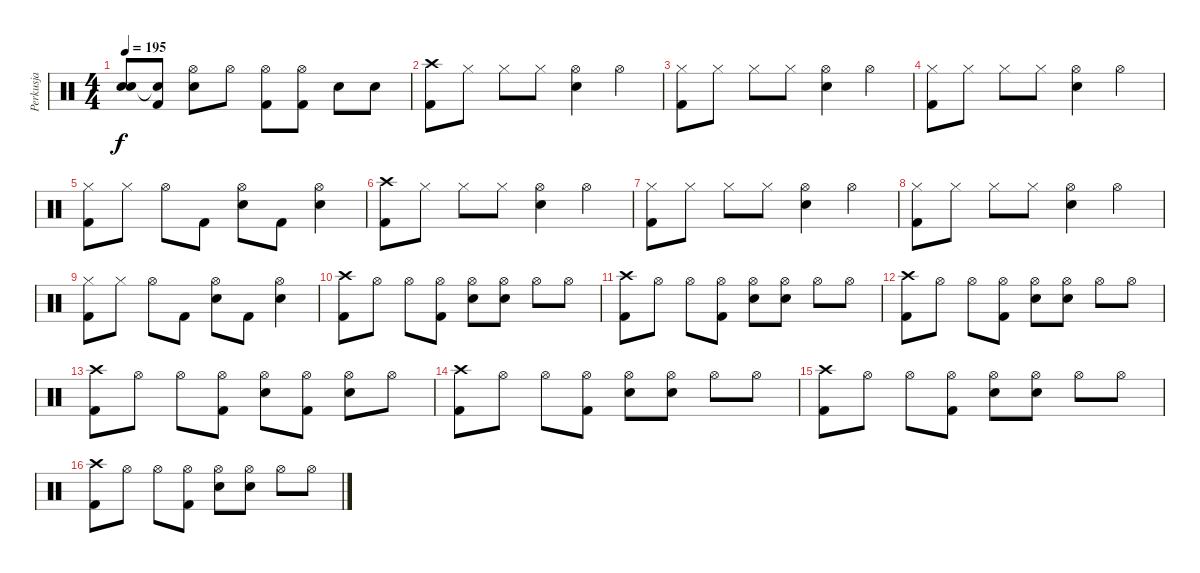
\track ("Perkusja" "Perkusja") {instrument percussion}
\staff {score}
\articulation defaults
\ts (4 4)
\tempo 195
\clef neutral
\ks c
("Snare (hit)"{t} "Snare (hit)"{t}).8{dy f} ("Kick (hit) 2" "Snare (hit)"{t}).8 ("Electric Snare (hit)" "Hi-Hat (open)").8 "Hi-Hat (open)".8 ("Kick (hit) 2" "Hi-Hat (open)").8 ("Kick (hit) 2" "Hi-Hat (open)").8 "Electric Snare (hit)".8 "Electric Snare (hit)".8 |
("Kick (hit) 2" "Crash high (hit)").8 "Hi-Hat (closed)".8 "Hi-Hat (closed)".8 "Hi-Hat (closed)".8 ("Electric Snare (hit)" "Hi-Hat (open)").4 "Hi-Hat (open)".4 |
("Kick (hit) 2" "Hi-Hat (closed)").8 "Hi-Hat (closed)".8 "Hi-Hat (closed)".8 "Hi-Hat (closed)".8 ("Electric Snare (hit)" "Hi-Hat (open)").4 "Hi-Hat (open)".4 |
("Kick (hit) 2" "Hi-Hat (closed)").8 "Hi-Hat (closed)".8 "Hi-Hat (closed)".8 "Hi-Hat (closed)".8 ("Electric Snare (hit)" "Hi-Hat (open)").4 "Hi-Hat (open)".4 |
("Kick (hit) 2" "Hi-Hat (closed)").8 "Hi-Hat (closed)".8 "Hi-Hat (open)".8 "Kick (hit) 2".8 ("Electric Snare (hit)" "Hi-Hat (open)").8 "Kick (hit) 2".8 ("Electric Snare (hit)" "Hi-Hat (open)").4 |
("Kick (hit) 2" "Crash high (hit)").8 "Hi-Hat (closed)".8 "Hi-Hat (closed)".8 "Hi-Hat (closed)".8 ("Electric Snare (hit)" "Hi-Hat (open)").4 "Hi-Hat (open)".4 |
("Kick (hit) 2" "Hi-Hat (closed)").8 "Hi-Hat (closed)".8 "Hi-Hat (closed)".8 "Hi-Hat (closed)".8 ("Electric Snare (hit)" "Hi-Hat (open)").4 "Hi-Hat (open)".4 |
("Kick (hit) 2" "Hi-Hat (closed)").8 "Hi-Hat (closed)".8 "Hi-Hat (closed)".8 "Hi-Hat (closed)".8 ("Electric Snare (hit)" "Hi-Hat (open)").4 "Hi-Hat (open)".4 |
("Kick (hit) 2" "Hi-Hat (closed)").8 "Hi-Hat (closed)".8 "Hi-Hat (open)".8 "Kick (hit) 2".8 ("Electric Snare (hit)" "Hi-Hat (open)").8 "Kick (hit) 2".8 ("Electric Snare (hit)" "Hi-Hat (open)").4 |
("Kick (hit) 2" "Crash high (hit)").8 "Hi-Hat (open)".8 "Hi-Hat (open)".8 ("Kick (hit) 2" "Hi-Hat (open)").8 ("Electric Snare (hit)" "Hi-Hat (open)").8 ("Electric Snare (hit)" "Hi-Hat (open)").8 "Hi-Hat (open)".8 "Hi-Hat (open)".8 |
("Kick (hit) 2" "Crash high (hit)").8 "Hi-Hat (open)".8 "Hi-Hat (open)".8 ("Kick (hit) 2" "Hi-Hat (open)").8 ("Electric Snare (hit)" "Hi-Hat (open)").8 ("Electric Snare (hit)" "Hi-Hat (open)").8 "Hi-Hat (open)".8 "Hi-Hat (open)".8 |
("Kick (hit) 2" "Crash high (hit)").8 "Hi-Hat (open)".8 "Hi-Hat (open)".8 ("Kick (hit) 2" "Hi-Hat (open)").8 ("Electric Snare (hit)" "Hi-Hat (open)").8 ("Electric Snare (hit)" "Hi-Hat (open)").8 "Hi-Hat (open)".8 "Hi-Hat (open)".8 |
("Kick (hit) 2" "Crash high (hit)").8 "Hi-Hat (open)".8 "Hi-Hat (open)".8 ("Kick (hit) 2" "Hi-Hat (open)").8 ("Electric Snare (hit)" "Hi-Hat (open)").8 ("Kick (hit) 2" "Hi-Hat (open)").8 ("Electric Snare (hit)" "Hi-Hat (open)").8 "Hi-Hat (open)".8 |
("Kick (hit) 2" "Crash high (hit)").8 "Hi-Hat (open)".8 "Hi-Hat (open)".8 ("Kick (hit) 2" "Hi-Hat (open)").8 ("Electric Snare (hit)" "Hi-Hat (open)").8 ("Electric Snare (hit)" "Hi-Hat (open)").8 "Hi-Hat (open)".8 "Hi-Hat (open)".8 |
("Kick (hit) 2" "Crash high (hit)").8 "Hi-Hat (open)".8 "Hi-Hat (open)".8 ("Kick (hit) 2" "Hi-Hat (open)").8 ("Electric Snare (hit)" "Hi-Hat (open)").8 ("Electric Snare (hit)" "Hi-Hat (open)").8 "Hi-Hat (open)".8 "Hi-Hat (open)".8 |
("Kick (hit) 2" "Crash high (hit)").8 "Hi-Hat (open)".8 "Hi-Hat (open)".8 ("Kick (hit) 2" "Hi-Hat (open)").8 ("Electric Snare (hit)" "Hi-Hat (open)").8 ("Electric Snare (hit)" "Hi-Hat (open)").8 "Hi-Hat (open)".8 "Hi-Hat (open)".8
